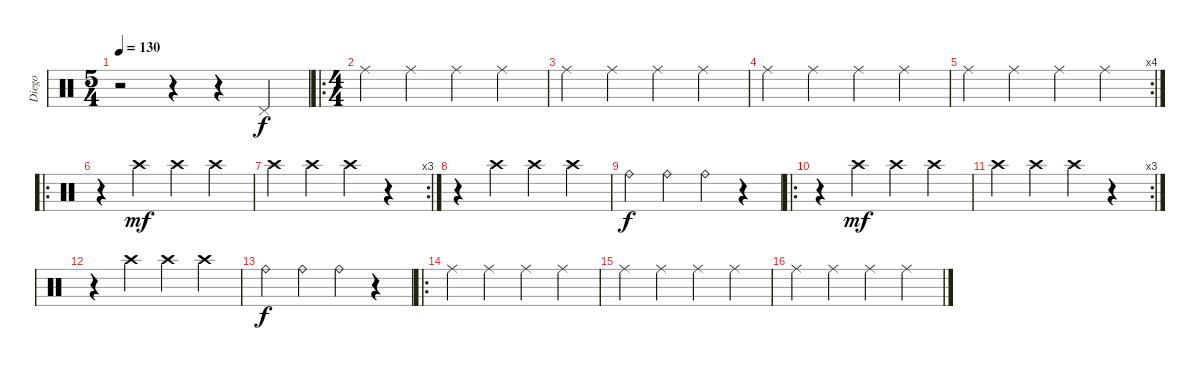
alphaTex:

\track ("Diego" "Diego") {instrument percussion}
\staff {score}
\articulation defaults
\ts (5 4)
\tempo 130
\clef neutral
\ks c
r.2{dy f} r.4 r.4 "Pedal Hi-Hat (hit)".4 |
\ro
\ts (4 4)
"Ride (middle)".4 "Ride (middle)".4 "Ride (middle)".4 "Ride (middle)".4 |
"Ride (middle)".4 "Ride (middle)".4 "Ride (middle)".4 "Ride (middle)".4 |
"Ride (middle)".4 "Ride (middle)".4 "Ride (middle)".4 "Ride (middle)".4 |
\rc 4 "Ride (middle)".4 "Ride (middle)".4 "Ride (middle)".4 "Ride (middle)".4
|
\ro
r.4 "Crash high (hit)".4{dy mf} "Crash high (hit)".4 "Crash high (hit)".4 |
\rc 3 "Crash high (hit)".4 "Crash high (hit)".4 "Crash high (hit)".4
r.4 |
r.4 "Crash high (hit)".4 "Crash high (hit)".4 "Crash high (hit)".4 |
"Ride (bell)".4{dy f} "Ride (bell)".4 "Ride (bell)".4 r.4 |
\ro
r.4 "Crash high (hit)".4{dy mf} "Crash high (hit)".4 "Crash high (hit)".4 |
\rc 3 "Crash high (hit)".4 "Crash high (hit)".4 "Crash high (hit)".4
r.4 |
r.4 "Crash high (hit)".4 "Crash high (hit)".4 "Crash high (hit)".4 |
"Ride (bell)".4{dy f} "Ride (bell)".4 "Ride (bell)".4 r.4 |
\ro "Ride (middle)".4 "Ride (middle)".4 "Ride (middle)".4 "Ride (middle)".4
|
"Ride (middle)".4 "Ride (middle)".4 "Ride (middle)".4 "Ride (middle)".4 |
"Ride (middle)".4 "Ride (middle)".4 "Ride (middle)".4 "Ride (middle)".4
